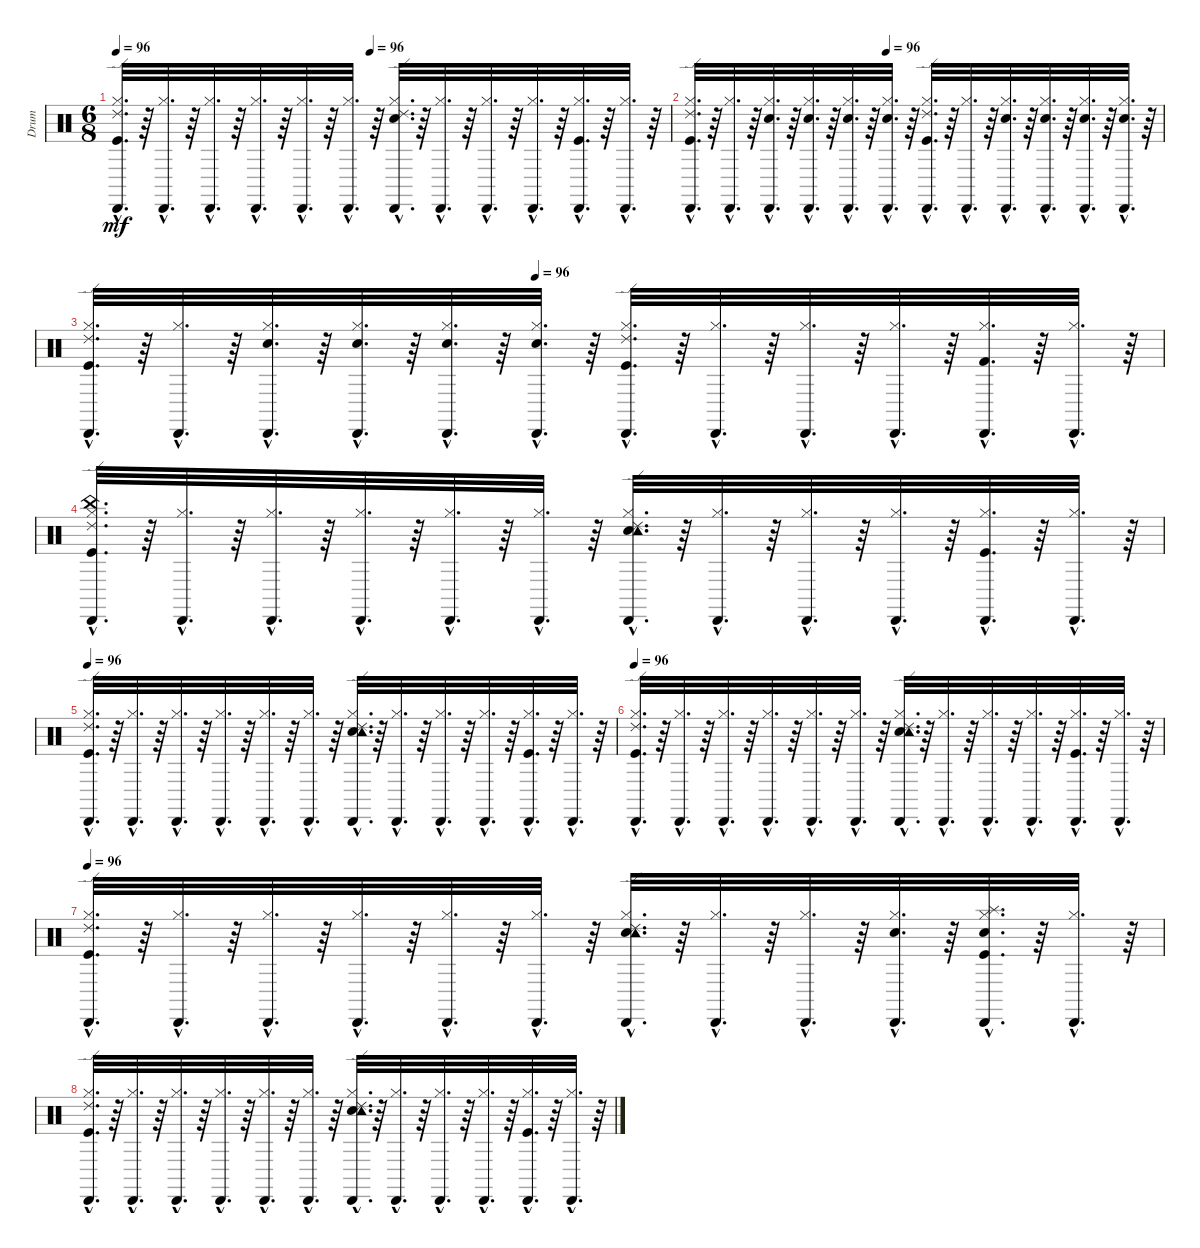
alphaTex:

\track ("Drum" "Drum") {instrument percussion}
\staff {score}
\articulation defaults
\ts (6 8)
\tempo 96
\tempo (96 0.4583333333333333)
\clef neutral
\ks c
("Ride (edge) 2"{hac} "Cabasa (hit)"{hac} "Hi-Hat (closed)"{hac} "Kick (hit)"{hac}).32{d dy mf} r.64 ("Cabasa (hit)"{hac} "Hi-Hat (closed)"{hac}).32{d} r.64 ("Cabasa (hit)"{hac} "Hi-Hat (closed)"{hac}).32{d} r.64 ("Cabasa (hit)"{hac} "Hi-Hat (closed)"{hac}).32{d} r.64 ("Cabasa (hit)"{hac} "Hi-Hat (closed)"{hac}).32{d} r.64 ("Cabasa (hit)"{hac} "Hi-Hat (closed)"{hac}).32{d} r.64 ("Ride (edge) 2"{hac} "Cabasa (hit)"{hac} "Hi-Hat (closed)"{hac} "Snare (hit) 2"{hac}).32{d} r.64 ("Cabasa (hit)"{hac} "Hi-Hat (closed)"{hac}).32{d} r.64 ("Cabasa (hit)"{hac} "Hi-Hat (closed)"{hac}).32{d} r.64 ("Cabasa (hit)"{hac} "Hi-Hat (closed)"{hac}).32{d} r.64 ("Cabasa (hit)"{hac} "Hi-Hat (closed)"{hac} "Kick (hit)"{hac}).32{d} r.64 ("Cabasa (hit)"{hac} "Hi-Hat (closed)"{hac}).32{d} r.64 |
\tempo (96 0.4166666666666667)
("Kick (hit)"{hac} "Hi-Hat (closed)"{hac} "Cabasa (hit)"{hac} "Ride (edge) 2"{hac}).32{d} r.64 ("Hi-Hat (closed)"{hac} "Cabasa (hit)"{hac}).32{d} r.64 ("Hi-Hat (closed)"{hac} "Cabasa (hit)"{hac} "Snare (hit) 2"{hac}).32{d} r.64 ("Hi-Hat (closed)"{hac} "Cabasa (hit)"{hac} "Snare (hit) 2"{hac}).32{d} r.64 ("Hi-Hat (closed)"{hac} "Cabasa (hit)"{hac} "Snare (hit) 2"{hac}).32{d} r.64 ("Hi-Hat (closed)"{hac} "Cabasa (hit)"{hac} "Snare (hit) 2"{hac}).32{d} r.64 ("Hi-Hat (closed)"{hac} "Cabasa (hit)"{hac} "Ride (edge) 2"{hac} "Kick (hit)"{hac}).32{d} r.64 ("Hi-Hat (closed)"{hac} "Cabasa (hit)"{hac}).32{d} r.64 ("Hi-Hat (closed)"{hac} "Cabasa (hit)"{hac} "Snare (hit) 2"{hac}).32{d} r.64 ("Hi-Hat (closed)"{hac} "Cabasa (hit)"{hac} "Snare (hit) 2"{hac}).32{d} r.64 ("Hi-Hat (closed)"{hac} "Cabasa (hit)"{hac} "Snare (hit) 2"{hac}).32{d} r.64 ("Hi-Hat (closed)"{hac} "Cabasa (hit)"{hac} "Snare (hit) 2"{hac}).32{d} r.64 |
\tempo (96 0.4166666666666667)
("Ride (edge) 2"{hac} "Cabasa (hit)"{hac} "Hi-Hat (closed)"{hac} "Kick (hit)"{hac}).32{d} r.64 ("Cabasa (hit)"{hac} "Hi-Hat (closed)"{hac}).32{d} r.64 ("Snare (hit) 2"{hac} "Cabasa (hit)"{hac} "Hi-Hat (closed)"{hac}).32{d} r.64 ("Snare (hit) 2"{hac} "Cabasa (hit)"{hac} "Hi-Hat (closed)"{hac}).32{d} r.64 ("Snare (hit) 2"{hac} "Cabasa (hit)"{hac} "Hi-Hat (closed)"{hac}).32{d} r.64 ("Snare (hit) 2"{hac} "Cabasa (hit)"{hac} "Hi-Hat (closed)"{hac}).32{d} r.64 ("Kick (hit)"{hac} "Ride (edge) 2"{hac} "Cabasa (hit)"{hac} "Hi-Hat (closed)"{hac}).32{d} r.64 ("Cabasa (hit)"{hac} "Hi-Hat (closed)"{hac}).32{d} r.64 ("Cabasa (hit)"{hac} "Hi-Hat (closed)"{hac}).32{d} r.64 ("Cabasa (hit)"{hac} "Hi-Hat (closed)"{hac}).32{d} r.64 ("Cabasa (hit)"{hac} "Hi-Hat (closed)"{hac} "Kick (hit) 2"{hac}).32{d} r.64 ("Cabasa (hit)"{hac} "Hi-Hat (closed)"{hac}).32{d} r.64 |
("Hi-Hat (closed)"{hac} "Kick (hit)"{hac} "Cabasa (hit)"{hac} "Ride (edge) 2"{hac} "China (hit)"{hac}).32{d} r.64 ("Hi-Hat (closed)"{hac} "Cabasa (hit)"{hac}).32{d} r.64 ("Hi-Hat (closed)"{hac} "Cabasa (hit)"{hac}).32{d} r.64 ("Hi-Hat (closed)"{hac} "Cabasa (hit)"{hac}).32{d} r.64 ("Hi-Hat (closed)"{hac} "Cabasa (hit)"{hac}).32{d} r.64 ("Hi-Hat (closed)"{hac} "Cabasa (hit)"{hac}).32{d} r.64 ("Hi-Hat (closed)"{hac} "Snare (hit) 2"{hac} "Cabasa (hit)"{hac} "Ride (edge) 2"{hac} "Tambourine (hit)"{hac}).32{d} r.64 ("Hi-Hat (closed)"{hac} "Cabasa (hit)"{hac}).32{d} r.64 ("Hi-Hat (closed)"{hac} "Cabasa (hit)"{hac}).32{d} r.64 ("Hi-Hat (closed)"{hac} "Cabasa (hit)"{hac}).32{d} r.64 ("Hi-Hat (closed)"{hac} "Cabasa (hit)"{hac} "Kick (hit)"{hac}).32{d} r.64 ("Hi-Hat (closed)"{hac} "Cabasa (hit)"{hac}).32{d} r.64 |
\tempo 96
("Kick (hit)"{hac} "Hi-Hat (closed)"{hac} "Cabasa (hit)"{hac} "Ride (edge) 2"{hac}).32{d} r.64 ("Hi-Hat (closed)"{hac} "Cabasa (hit)"{hac}).32{d} r.64 ("Hi-Hat (closed)"{hac} "Cabasa (hit)"{hac}).32{d} r.64 ("Hi-Hat (closed)"{hac} "Cabasa (hit)"{hac}).32{d} r.64 ("Hi-Hat (closed)"{hac} "Cabasa (hit)"{hac}).32{d} r.64 ("Hi-Hat (closed)"{hac} "Cabasa (hit)"{hac}).32{d} r.64 ("Snare (hit) 2"{hac} "Hi-Hat (closed)"{hac} "Cabasa (hit)"{hac} "Ride (edge) 2"{hac} "Tambourine (hit)"{hac}).32{d} r.64 ("Hi-Hat (closed)"{hac} "Cabasa (hit)"{hac}).32{d} r.64 ("Hi-Hat (closed)"{hac} "Cabasa (hit)"{hac}).32{d} r.64 ("Hi-Hat (closed)"{hac} "Cabasa (hit)"{hac}).32{d} r.64 ("Hi-Hat (closed)"{hac} "Cabasa (hit)"{hac} "Kick (hit)"{hac}).32{d} r.64 ("Hi-Hat (closed)"{hac} "Cabasa (hit)"{hac}).32{d} r.64 |
\tempo 96
("Ride (edge) 2"{hac} "Cabasa (hit)"{hac} "Hi-Hat (closed)"{hac} "Kick (hit)"{hac}).32{d} r.64 ("Cabasa (hit)"{hac} "Hi-Hat (closed)"{hac}).32{d} r.64 ("Cabasa (hit)"{hac} "Hi-Hat (closed)"{hac}).32{d} r.64 ("Cabasa (hit)"{hac} "Hi-Hat (closed)"{hac}).32{d} r.64 ("Cabasa (hit)"{hac} "Hi-Hat (closed)"{hac}).32{d} r.64 ("Cabasa (hit)"{hac} "Hi-Hat (closed)"{hac}).32{d} r.64 ("Ride (edge) 2"{hac} "Cabasa (hit)"{hac} "Hi-Hat (closed)"{hac} "Snare (hit) 2"{hac} "Tambourine (hit)"{hac}).32{d} r.64 ("Cabasa (hit)"{hac} "Hi-Hat (closed)"{hac}).32{d} r.64 ("Cabasa (hit)"{hac} "Hi-Hat (closed)"{hac}).32{d} r.64 ("Cabasa (hit)"{hac} "Hi-Hat (closed)"{hac}).32{d} r.64 ("Cabasa (hit)"{hac} "Hi-Hat (closed)"{hac} "Kick (hit)"{hac}).32{d} r.64 ("Cabasa (hit)"{hac} "Hi-Hat (closed)"{hac}).32{d} r.64 |
\tempo 96
("Ride (edge) 2"{hac} "Cabasa (hit)"{hac} "Hi-Hat (closed)"{hac} "Kick (hit)"{hac}).32{d} r.64 ("Cabasa (hit)"{hac} "Hi-Hat (closed)"{hac}).32{d} r.64 ("Cabasa (hit)"{hac} "Hi-Hat (closed)"{hac}).32{d} r.64 ("Cabasa (hit)"{hac} "Hi-Hat (closed)"{hac}).32{d} r.64 ("Cabasa (hit)"{hac} "Hi-Hat (closed)"{hac}).32{d} r.64 ("Cabasa (hit)"{hac} "Hi-Hat (closed)"{hac}).32{d} r.64 ("Ride (edge) 2"{hac} "Cabasa (hit)"{hac} "Hi-Hat (closed)"{hac} "Snare (hit) 2"{hac} "Tambourine (hit)"{hac}).32{d} r.64 ("Cabasa (hit)"{hac} "Hi-Hat (closed)"{hac}).32{d} r.64 ("Cabasa (hit)"{hac} "Hi-Hat (closed)"{hac}).32{d} r.64 ("Snare (hit) 2"{hac} "Cabasa (hit)"{hac} "Hi-Hat (closed)"{hac}).32{d} r.64 ("Snare (hit) 2"{hac} "Cabasa (hit)"{hac} "Hi-Hat (closed)"{hac} "Splash (hit)"{hac} "Kick (hit)"{hac}).32{d} r.64 ("Cabasa (hit)"{hac} "Hi-Hat (closed)"{hac}).32{d} r.64 |
("Hi-Hat (closed)"{hac} "Kick (hit)"{hac} "Cabasa (hit)"{hac} "Ride (edge) 2"{hac}).32{d} r.64 ("Hi-Hat (closed)"{hac} "Cabasa (hit)"{hac}).32{d} r.64 ("Hi-Hat (closed)"{hac} "Cabasa (hit)"{hac}).32{d} r.64 ("Hi-Hat (closed)"{hac} "Cabasa (hit)"{hac}).32{d} r.64 ("Hi-Hat (closed)"{hac} "Cabasa (hit)"{hac}).32{d} r.64 ("Hi-Hat (closed)"{hac} "Cabasa (hit)"{hac}).32{d} r.64 ("Hi-Hat (closed)"{hac} "Snare (hit) 2"{hac} "Cabasa (hit)"{hac} "Ride (edge) 2"{hac} "Tambourine (hit)"{hac}).32{d} r.64 ("Hi-Hat (closed)"{hac} "Cabasa (hit)"{hac}).32{d} r.64 ("Hi-Hat (closed)"{hac} "Cabasa (hit)"{hac}).32{d} r.64 ("Hi-Hat (closed)"{hac} "Cabasa (hit)"{hac}).32{d} r.64 ("Hi-Hat (closed)"{hac} "Cabasa (hit)"{hac} "Kick (hit)"{hac}).32{d} r.64 ("Hi-Hat (closed)"{hac} "Cabasa (hit)"{hac}).32{d} r.64
